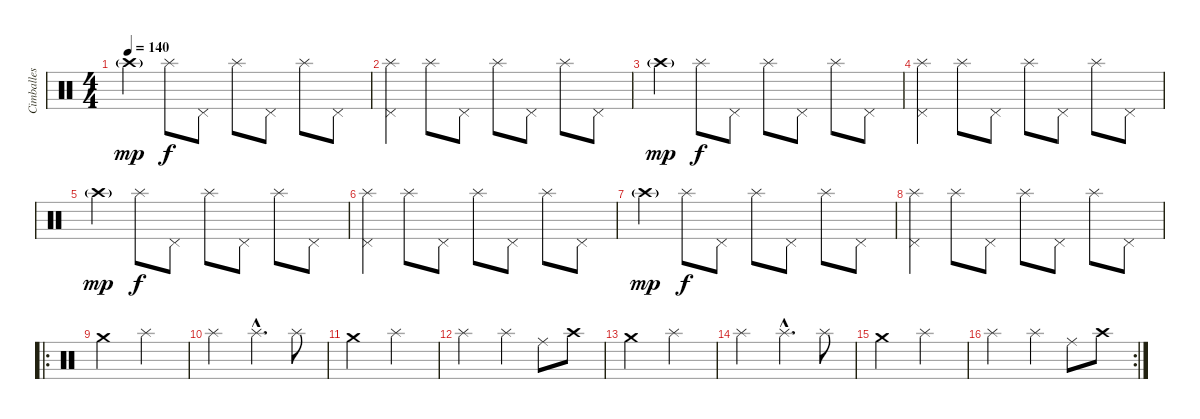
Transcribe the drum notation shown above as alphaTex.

\track ("Cimballes" "Cimballes") {instrument percussion}
\staff {score}
\articulation defaults
\ts (4 4)
\tempo 140
\clef neutral
\ks c "Crash high (hit)"{g}.4{dy mp} "Splash (hit)".8{dy f} "Pedal Hi-Hat (hit)".8 "Splash (hit)".8 "Pedal Hi-Hat (hit)".8 "Splash (hit)".8 "Pedal Hi-Hat (hit)".8
|
("Splash (hit)" "Pedal Hi-Hat (hit)").4 "Splash (hit)".8 "Pedal Hi-Hat (hit)".8 "Splash (hit)".8 "Pedal Hi-Hat (hit)".8 "Splash (hit)".8 "Pedal Hi-Hat (hit)".8 |
"Crash high (hit)"{g}.4{dy mp} "Splash (hit)".8{dy f} "Pedal Hi-Hat (hit)".8 "Splash (hit)".8 "Pedal Hi-Hat (hit)".8 "Splash (hit)".8 "Pedal Hi-Hat (hit)".8 |
("Splash (hit)" "Pedal Hi-Hat (hit)").4 "Splash (hit)".8 "Pedal Hi-Hat (hit)".8 "Splash (hit)".8 "Pedal Hi-Hat (hit)".8 "Splash (hit)".8 "Pedal Hi-Hat (hit)".8 |
"Crash high (hit)"{g}.4{dy mp} "Splash (hit)".8{dy f} "Pedal Hi-Hat (hit)".8 "Splash (hit)".8 "Pedal Hi-Hat (hit)".8 "Splash (hit)".8 "Pedal Hi-Hat (hit)".8 |
("Splash (hit)" "Pedal Hi-Hat (hit)").4 "Splash (hit)".8 "Pedal Hi-Hat (hit)".8 "Splash (hit)".8 "Pedal Hi-Hat (hit)".8 "Splash (hit)".8 "Pedal Hi-Hat (hit)".8 |
"Crash high (hit)"{g}.4{dy mp} "Splash (hit)".8{dy f} "Pedal Hi-Hat (hit)".8 "Splash (hit)".8 "Pedal Hi-Hat (hit)".8 "Splash (hit)".8 "Pedal Hi-Hat (hit)".8 |
("Splash (hit)" "Pedal Hi-Hat (hit)").4 "Splash (hit)".8 "Pedal Hi-Hat (hit)".8 "Splash (hit)".8 "Pedal Hi-Hat (hit)".8 "Splash (hit)".8 "Pedal Hi-Hat (hit)".8 |
\ro "Crash medium (hit)".2 "Splash (hit)".2
|
"Splash (hit)".2 "Splash (hit)"{hac}.4{d} "Splash (hit)".8 |
"Crash medium (hit)".2 "Splash (hit)".2 |
"Splash (hit)".2 "Splash (hit)".4 "Ride (middle)".8 "Crash high (hit)".8 |
"Crash medium (hit)".2 "Splash (hit)".2 |
"Splash (hit)".2 "Splash (hit)"{hac}.4{d} "Splash (hit)".8 |
"Crash medium (hit)".2 "Splash (hit)".2 |
\rc 2 "Splash (hit)".2 "Splash (hit)".4 "Ride (middle)".8 "Crash high (hit)".8
